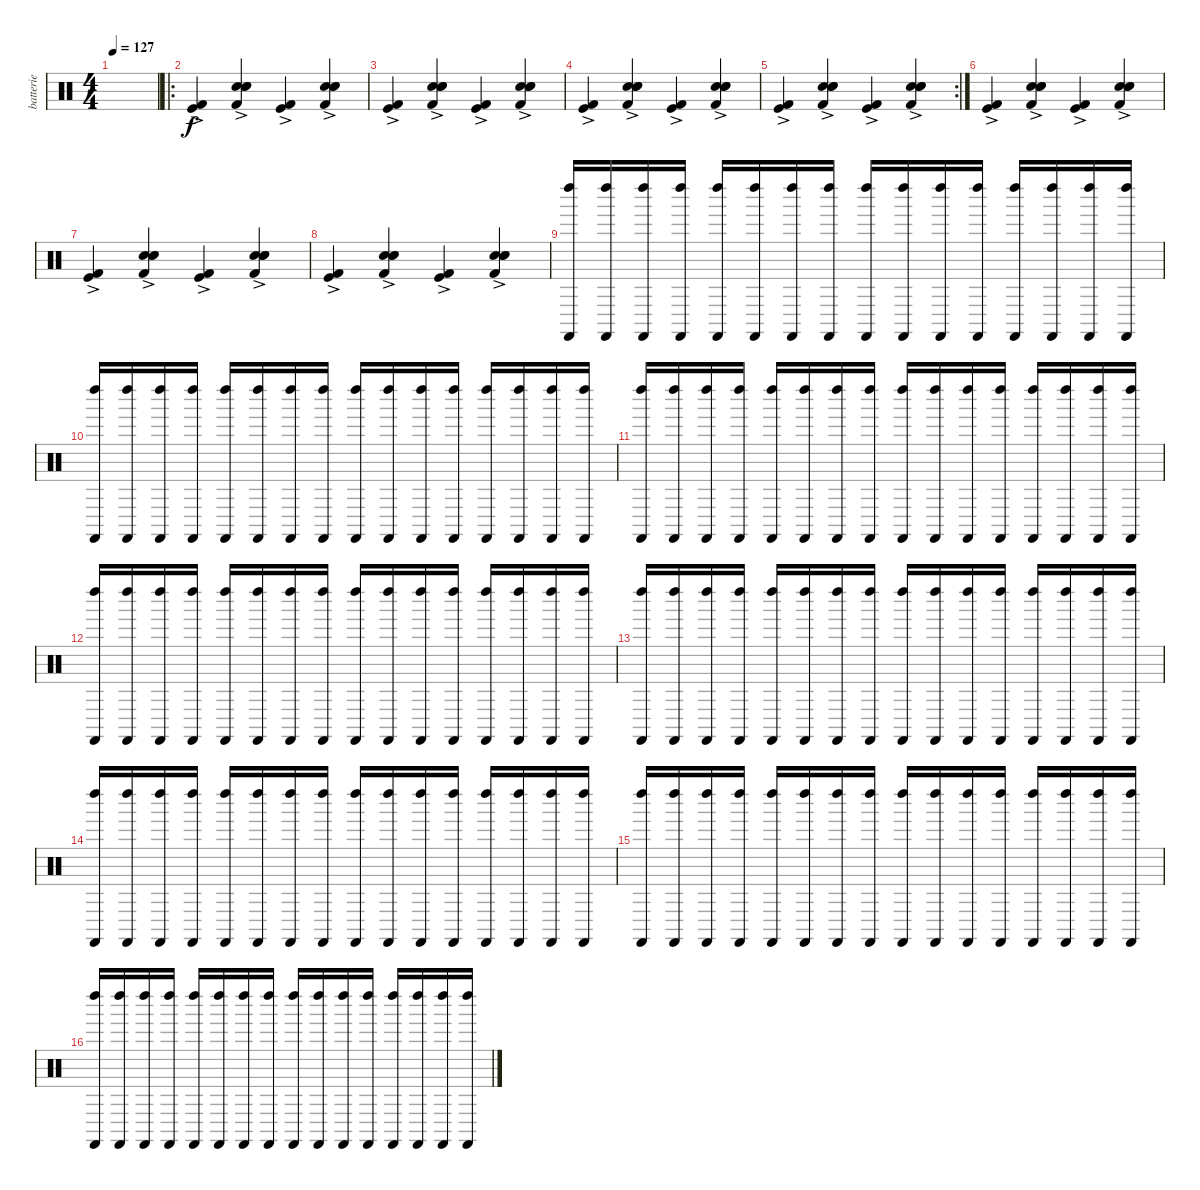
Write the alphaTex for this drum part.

\track ("batterie" "batterie") {instrument percussion}
\staff {score}
\articulation defaults
\ts (4 4)
\tempo 127
\clef neutral
\ks c
|
\ro
("Kick (hit) 2" "Kick (hit)"{ac}).4 ("Hand Clap (hit)"{ac} "Kick (hit) 2" "Electric Snare (hit)" "Snare (hit) 2").4 ("Kick (hit) 2" "Kick (hit)"{ac}).4 ("Hand Clap (hit)"{ac} "Kick (hit) 2" "Electric Snare (hit)" "Snare (hit) 2").4 |
("Kick (hit) 2" "Kick (hit)"{ac}).4 ("Hand Clap (hit)"{ac} "Kick (hit) 2" "Electric Snare (hit)" "Snare (hit) 2").4 ("Kick (hit) 2" "Kick (hit)"{ac}).4 ("Hand Clap (hit)"{ac} "Kick (hit) 2" "Electric Snare (hit)" "Snare (hit) 2").4 |
("Kick (hit) 2" "Kick (hit)"{ac}).4 ("Hand Clap (hit)"{ac} "Kick (hit) 2" "Electric Snare (hit)" "Snare (hit) 2").4 ("Kick (hit) 2" "Kick (hit)"{ac}).4 ("Hand Clap (hit)"{ac} "Kick (hit) 2" "Electric Snare (hit)" "Snare (hit) 2").4 |
\rc 2
("Kick (hit) 2" "Kick (hit)"{ac}).4 ("Hand Clap (hit)"{ac} "Kick (hit) 2" "Electric Snare (hit)" "Snare (hit) 2").4 ("Kick (hit) 2" "Kick (hit)"{ac}).4 ("Hand Clap (hit)"{ac} "Kick (hit) 2" "Electric Snare (hit)" "Snare (hit) 2").4 |
("Kick (hit) 2" "Kick (hit)"{ac}).4 ("Hand Clap (hit)"{ac} "Kick (hit) 2" "Electric Snare (hit)" "Snare (hit) 2").4 ("Kick (hit) 2" "Kick (hit)"{ac}).4 ("Hand Clap (hit)"{ac} "Kick (hit) 2" "Electric Snare (hit)" "Snare (hit) 2").4 |
("Kick (hit) 2" "Kick (hit)"{ac}).4 ("Hand Clap (hit)"{ac} "Kick (hit) 2" "Electric Snare (hit)" "Snare (hit) 2").4 ("Kick (hit) 2" "Kick (hit)"{ac}).4 ("Hand Clap (hit)"{ac} "Kick (hit) 2" "Electric Snare (hit)" "Snare (hit) 2").4 |
("Kick (hit) 2" "Kick (hit)"{ac}).4 ("Hand Clap (hit)"{ac} "Kick (hit) 2" "Electric Snare (hit)" "Snare (hit) 2").4 ("Kick (hit) 2" "Kick (hit)"{ac}).4 ("Hand Clap (hit)"{ac} "Kick (hit) 2" "Electric Snare (hit)" "Snare (hit) 2").4 |
("Castanets (hit)" "Left Maraca (hit)").16{dy f} ("Castanets (hit)" "Left Maraca (hit)").16 ("Castanets (hit)" "Left Maraca (hit)").16 ("Castanets (hit)" "Left Maraca (hit)").16 ("Castanets (hit)" "Left Maraca (hit)").16 ("Castanets (hit)" "Left Maraca (hit)").16 ("Castanets (hit)" "Left Maraca (hit)").16 ("Castanets (hit)" "Left Maraca (hit)").16 ("Castanets (hit)" "Left Maraca (hit)").16 ("Castanets (hit)" "Left Maraca (hit)").16 ("Castanets (hit)" "Left Maraca (hit)").16 ("Castanets (hit)" "Left Maraca (hit)").16 ("Castanets (hit)" "Left Maraca (hit)").16 ("Castanets (hit)" "Left Maraca (hit)").16 ("Castanets (hit)" "Left Maraca (hit)").16 ("Castanets (hit)" "Left Maraca (hit)").16 |
("Castanets (hit)" "Left Maraca (hit)").16 ("Castanets (hit)" "Left Maraca (hit)").16 ("Castanets (hit)" "Left Maraca (hit)").16 ("Castanets (hit)" "Left Maraca (hit)").16 ("Castanets (hit)" "Left Maraca (hit)").16 ("Castanets (hit)" "Left Maraca (hit)").16 ("Castanets (hit)" "Left Maraca (hit)").16 ("Castanets (hit)" "Left Maraca (hit)").16 ("Castanets (hit)" "Left Maraca (hit)").16 ("Castanets (hit)" "Left Maraca (hit)").16 ("Castanets (hit)" "Left Maraca (hit)").16 ("Castanets (hit)" "Left Maraca (hit)").16 ("Castanets (hit)" "Left Maraca (hit)").16 ("Castanets (hit)" "Left Maraca (hit)").16 ("Castanets (hit)" "Left Maraca (hit)").16 ("Castanets (hit)" "Left Maraca (hit)").16 |
("Castanets (hit)" "Left Maraca (hit)").16 ("Castanets (hit)" "Left Maraca (hit)").16 ("Castanets (hit)" "Left Maraca (hit)").16 ("Castanets (hit)" "Left Maraca (hit)").16 ("Castanets (hit)" "Left Maraca (hit)").16 ("Castanets (hit)" "Left Maraca (hit)").16 ("Castanets (hit)" "Left Maraca (hit)").16 ("Castanets (hit)" "Left Maraca (hit)").16 ("Castanets (hit)" "Left Maraca (hit)").16 ("Castanets (hit)" "Left Maraca (hit)").16 ("Castanets (hit)" "Left Maraca (hit)").16 ("Castanets (hit)" "Left Maraca (hit)").16 ("Castanets (hit)" "Left Maraca (hit)").16 ("Castanets (hit)" "Left Maraca (hit)").16 ("Castanets (hit)" "Left Maraca (hit)").16 ("Castanets (hit)" "Left Maraca (hit)").16 |
("Castanets (hit)" "Left Maraca (hit)").16 ("Castanets (hit)" "Left Maraca (hit)").16 ("Castanets (hit)" "Left Maraca (hit)").16 ("Castanets (hit)" "Left Maraca (hit)").16 ("Castanets (hit)" "Left Maraca (hit)").16 ("Castanets (hit)" "Left Maraca (hit)").16 ("Castanets (hit)" "Left Maraca (hit)").16 ("Castanets (hit)" "Left Maraca (hit)").16 ("Castanets (hit)" "Left Maraca (hit)").16 ("Castanets (hit)" "Left Maraca (hit)").16 ("Castanets (hit)" "Left Maraca (hit)").16 ("Castanets (hit)" "Left Maraca (hit)").16 ("Castanets (hit)" "Left Maraca (hit)").16 ("Castanets (hit)" "Left Maraca (hit)").16 ("Castanets (hit)" "Left Maraca (hit)").16 ("Castanets (hit)" "Left Maraca (hit)").16 |
("Castanets (hit)" "Left Maraca (hit)").16 ("Castanets (hit)" "Left Maraca (hit)").16 ("Castanets (hit)" "Left Maraca (hit)").16 ("Castanets (hit)" "Left Maraca (hit)").16 ("Castanets (hit)" "Left Maraca (hit)").16 ("Castanets (hit)" "Left Maraca (hit)").16 ("Castanets (hit)" "Left Maraca (hit)").16 ("Castanets (hit)" "Left Maraca (hit)").16 ("Castanets (hit)" "Left Maraca (hit)").16 ("Castanets (hit)" "Left Maraca (hit)").16 ("Castanets (hit)" "Left Maraca (hit)").16 ("Castanets (hit)" "Left Maraca (hit)").16 ("Castanets (hit)" "Left Maraca (hit)").16 ("Castanets (hit)" "Left Maraca (hit)").16 ("Castanets (hit)" "Left Maraca (hit)").16 ("Castanets (hit)" "Left Maraca (hit)").16 |
("Castanets (hit)" "Left Maraca (hit)").16 ("Castanets (hit)" "Left Maraca (hit)").16 ("Castanets (hit)" "Left Maraca (hit)").16 ("Castanets (hit)" "Left Maraca (hit)").16 ("Castanets (hit)" "Left Maraca (hit)").16 ("Castanets (hit)" "Left Maraca (hit)").16 ("Castanets (hit)" "Left Maraca (hit)").16 ("Castanets (hit)" "Left Maraca (hit)").16 ("Castanets (hit)" "Left Maraca (hit)").16 ("Castanets (hit)" "Left Maraca (hit)").16 ("Castanets (hit)" "Left Maraca (hit)").16 ("Castanets (hit)" "Left Maraca (hit)").16 ("Castanets (hit)" "Left Maraca (hit)").16 ("Castanets (hit)" "Left Maraca (hit)").16 ("Castanets (hit)" "Left Maraca (hit)").16 ("Castanets (hit)" "Left Maraca (hit)").16 |
("Castanets (hit)" "Left Maraca (hit)").16 ("Castanets (hit)" "Left Maraca (hit)").16 ("Castanets (hit)" "Left Maraca (hit)").16 ("Castanets (hit)" "Left Maraca (hit)").16 ("Castanets (hit)" "Left Maraca (hit)").16 ("Castanets (hit)" "Left Maraca (hit)").16 ("Castanets (hit)" "Left Maraca (hit)").16 ("Castanets (hit)" "Left Maraca (hit)").16 ("Castanets (hit)" "Left Maraca (hit)").16 ("Castanets (hit)" "Left Maraca (hit)").16 ("Castanets (hit)" "Left Maraca (hit)").16 ("Castanets (hit)" "Left Maraca (hit)").16 ("Castanets (hit)" "Left Maraca (hit)").16 ("Castanets (hit)" "Left Maraca (hit)").16 ("Castanets (hit)" "Left Maraca (hit)").16 ("Castanets (hit)" "Left Maraca (hit)").16 |
("Castanets (hit)" "Left Maraca (hit)").16 ("Castanets (hit)" "Left Maraca (hit)").16 ("Castanets (hit)" "Left Maraca (hit)").16 ("Castanets (hit)" "Left Maraca (hit)").16 ("Castanets (hit)" "Left Maraca (hit)").16 ("Castanets (hit)" "Left Maraca (hit)").16 ("Castanets (hit)" "Left Maraca (hit)").16 ("Castanets (hit)" "Left Maraca (hit)").16 ("Castanets (hit)" "Left Maraca (hit)").16 ("Castanets (hit)" "Left Maraca (hit)").16 ("Castanets (hit)" "Left Maraca (hit)").16 ("Castanets (hit)" "Left Maraca (hit)").16 ("Castanets (hit)" "Left Maraca (hit)").16 ("Castanets (hit)" "Left Maraca (hit)").16 ("Castanets (hit)" "Left Maraca (hit)").16 ("Castanets (hit)" "Left Maraca (hit)").16
